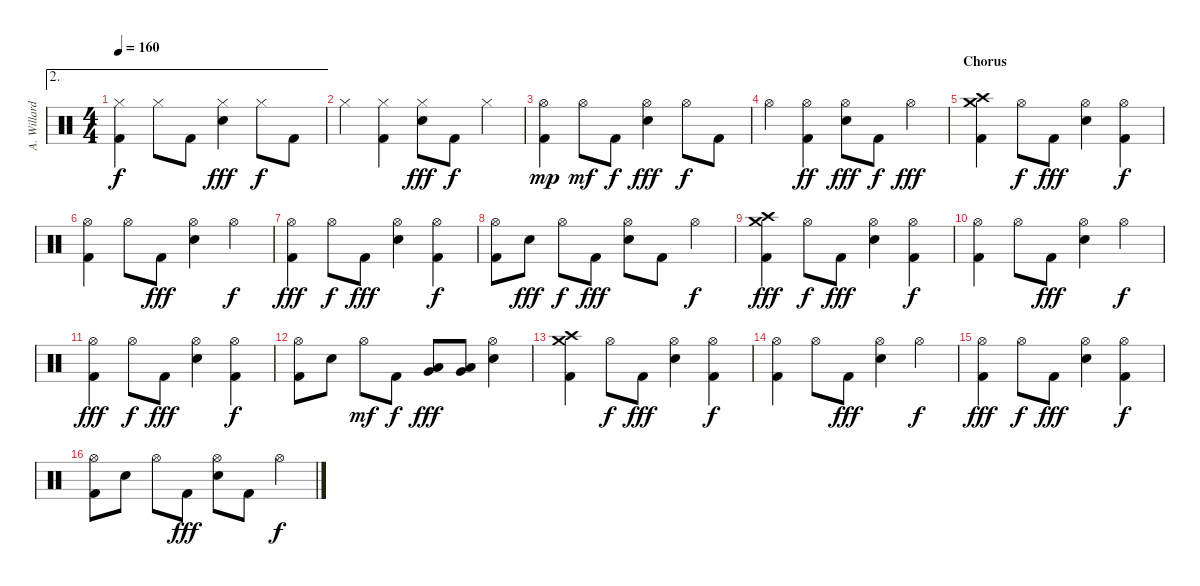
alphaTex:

\track ("A. Willard (Drums)" "A. Willard") {instrument percussion}
\staff {score}
\articulation defaults
\ae 2
\ts (4 4)
\tempo 160
\clef neutral
\ks c
("Hi-Hat (closed)" "Kick (hit) 2").4{dy f} "Hi-Hat (closed)".8 "Kick (hit) 2".8 ("Hi-Hat (closed)" "Electric Snare (hit)").4{dy fff} "Hi-Hat (closed)".8{dy f} "Kick (hit) 2".8 |
"Hi-Hat (closed)".4 ("Hi-Hat (closed)" "Kick (hit) 2").4 ("Hi-Hat (closed)" "Electric Snare (hit)").8{dy fff} "Kick (hit) 2".8{dy f} "Hi-Hat (closed)".4 |
("Hi-Hat (open)" "Kick (hit) 2").4{dy mp} "Hi-Hat (open)".8{dy mf} "Kick (hit) 2".8{dy f} ("Hi-Hat (open)" "Electric Snare (hit)").4{dy fff} "Hi-Hat (open)".8{dy f} "Kick (hit) 2".8 |
"Hi-Hat (open)".4 ("Hi-Hat (open)" "Kick (hit) 2").4{dy ff} ("Hi-Hat (open)" "Electric Snare (hit)").8{dy fff} "Kick (hit) 2".8{dy f} "Hi-Hat (open)".4{dy fff} |
\section ("" "Chorus")
("Crash high (hit)" "Kick (hit) 2" "Crash medium (hit)").4 "Hi-Hat (open)".8{dy f} "Kick (hit) 2".8{dy fff} ("Hi-Hat (open)" "Electric Snare (hit)").4 ("Hi-Hat (open)" "Kick (hit) 2").4{dy f} |
("Hi-Hat (open)" "Kick (hit) 2").4 "Hi-Hat (open)".8 "Kick (hit) 2".8{dy fff} ("Hi-Hat (open)" "Electric Snare (hit)").4 "Hi-Hat (open)".4{dy f} |
("Hi-Hat (open)" "Kick (hit) 2").4{dy fff} "Hi-Hat (open)".8{dy f} "Kick (hit) 2".8{dy fff} ("Hi-Hat (open)" "Electric Snare (hit)").4 ("Hi-Hat (open)" "Kick (hit) 2").4{dy f} |
("Hi-Hat (open)" "Kick (hit) 2").8 "Electric Snare (hit)".8{dy fff} "Hi-Hat (open)".8{dy f} "Kick (hit) 2".8{dy fff} ("Hi-Hat (open)" "Electric Snare (hit)").8 "Kick (hit) 2".8 "Hi-Hat (open)".4{dy f} |
("Crash high (hit)" "Kick (hit) 2" "Crash medium (hit)").4{dy fff} "Hi-Hat (open)".8{dy f} "Kick (hit) 2".8{dy fff} ("Hi-Hat (open)" "Electric Snare (hit)").4 ("Hi-Hat (open)" "Kick (hit) 2").4{dy f} |
("Hi-Hat (open)" "Kick (hit) 2").4 "Hi-Hat (open)".8 "Kick (hit) 2".8{dy fff} ("Hi-Hat (open)" "Electric Snare (hit)").4 "Hi-Hat (open)".4{dy f} |
("Hi-Hat (open)" "Kick (hit) 2").4{dy fff} "Hi-Hat (open)".8{dy f} "Kick (hit) 2".8{dy fff} ("Hi-Hat (open)" "Electric Snare (hit)").4 ("Hi-Hat (open)" "Kick (hit) 2").4{dy f} |
("Hi-Hat (open)" "Kick (hit) 2").8 "Electric Snare (hit)".8 "Hi-Hat (open)".8{dy mf} "Kick (hit) 2".8{dy f} ("Very Low Tom (hit)" "Low Floor Tom (hit)").8{dy fff} ("Very Low Tom (hit)" "Low Floor Tom (hit)").8 ("Hi-Hat (open)" "Electric Snare (hit)").4 |
("Crash high (hit)" "Kick (hit) 2" "Crash medium (hit)").4 "Hi-Hat (open)".8{dy f} "Kick (hit) 2".8{dy fff} ("Hi-Hat (open)" "Electric Snare (hit)").4 ("Hi-Hat (open)" "Kick (hit) 2").4{dy f} |
("Hi-Hat (open)" "Kick (hit) 2").4 "Hi-Hat (open)".8 "Kick (hit) 2".8{dy fff} ("Hi-Hat (open)" "Electric Snare (hit)").4 "Hi-Hat (open)".4{dy f} |
("Hi-Hat (open)" "Kick (hit) 2").4{dy fff} "Hi-Hat (open)".8{dy f} "Kick (hit) 2".8{dy fff} ("Hi-Hat (open)" "Electric Snare (hit)").4 ("Hi-Hat (open)" "Kick (hit) 2").4{dy f} |
("Hi-Hat (open)" "Kick (hit) 2").8 "Electric Snare (hit)".8 "Hi-Hat (open)".8 "Kick (hit) 2".8{dy fff} ("Hi-Hat (open)" "Electric Snare (hit)").8 "Kick (hit) 2".8 "Hi-Hat (open)".4{dy f}
